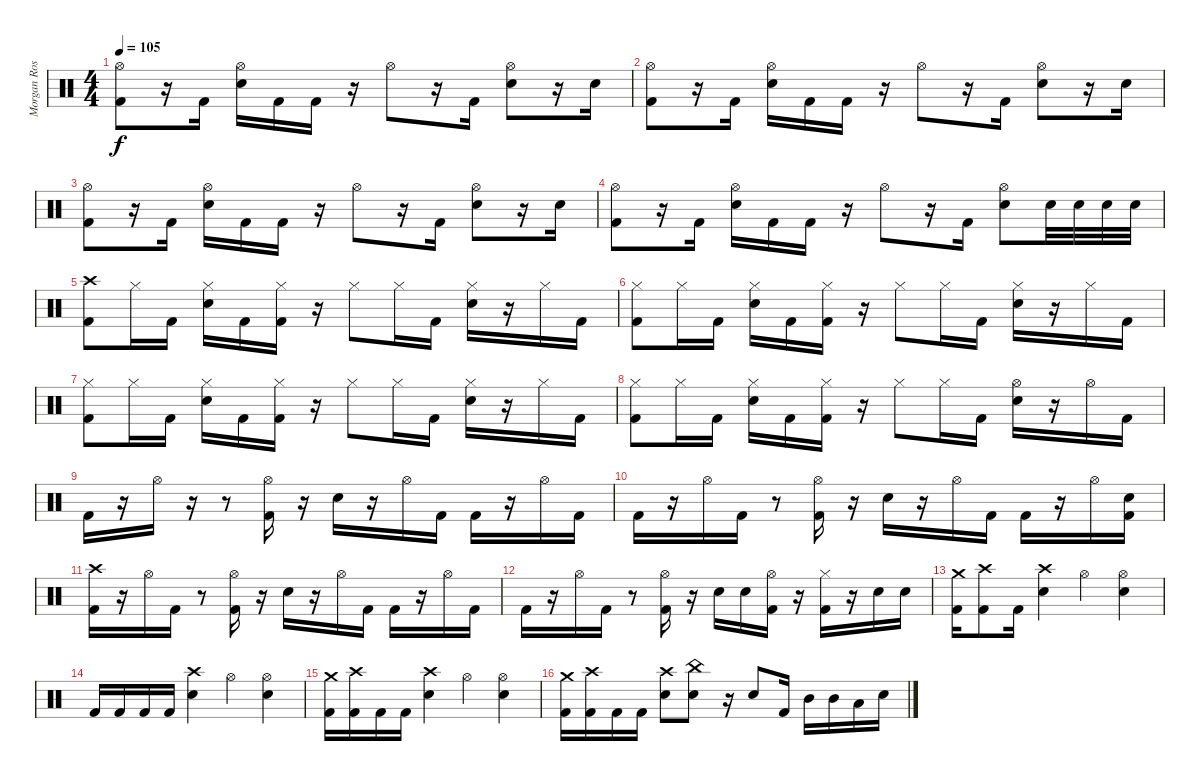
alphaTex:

\track ("Morgan Rose - Drums" "Morgan Ros") {instrument percussion}
\staff {score}
\articulation defaults
\ts (4 4)
\tempo 105
\clef neutral
\ks c
("Hi-Hat (open)" "Kick (hit) 2").8{dy f} r.16 "Kick (hit) 2".16 ("Hi-Hat (open)" "Electric Snare (hit)").16 "Kick (hit) 2".16 "Kick (hit) 2".16 r.16 "Hi-Hat (open)".8 r.16 "Kick (hit) 2".16 ("Hi-Hat (open)" "Electric Snare (hit)").8 r.16 "Electric Snare (hit)".16 |
("Hi-Hat (open)" "Kick (hit) 2").8 r.16 "Kick (hit) 2".16 ("Hi-Hat (open)" "Electric Snare (hit)").16 "Kick (hit) 2".16 "Kick (hit) 2".16 r.16 "Hi-Hat (open)".8 r.16 "Kick (hit) 2".16 ("Hi-Hat (open)" "Electric Snare (hit)").8 r.16 "Electric Snare (hit)".16 |
("Hi-Hat (open)" "Kick (hit) 2").8 r.16 "Kick (hit) 2".16 ("Hi-Hat (open)" "Electric Snare (hit)").16 "Kick (hit) 2".16 "Kick (hit) 2".16 r.16 "Hi-Hat (open)".8 r.16 "Kick (hit) 2".16 ("Hi-Hat (open)" "Electric Snare (hit)").8 r.16 "Electric Snare (hit)".16 |
("Hi-Hat (open)" "Kick (hit) 2").8 r.16 "Kick (hit) 2".16 ("Hi-Hat (open)" "Electric Snare (hit)").16 "Kick (hit) 2".16 "Kick (hit) 2".16 r.16 "Hi-Hat (open)".8 r.16 "Kick (hit) 2".16 ("Hi-Hat (open)" "Electric Snare (hit)").8 "Electric Snare (hit)".32 "Electric Snare (hit)".32 "Electric Snare (hit)".32 "Electric Snare (hit)".32 |
("Crash high (hit)" "Kick (hit) 2").8 "Hi-Hat (closed)".16 "Kick (hit) 2".16 ("Hi-Hat (closed)" "Electric Snare (hit)").16 "Kick (hit) 2".16 ("Hi-Hat (closed)" "Kick (hit) 2").16 r.16 "Hi-Hat (closed)".8 "Hi-Hat (closed)".16 "Kick (hit) 2".16 ("Hi-Hat (closed)" "Electric Snare (hit)").16 r.16 "Hi-Hat (closed)".16 "Kick (hit) 2".16 |
("Hi-Hat (closed)" "Kick (hit) 2").8 "Hi-Hat (closed)".16 "Kick (hit) 2".16 ("Hi-Hat (closed)" "Electric Snare (hit)").16 "Kick (hit) 2".16 ("Hi-Hat (closed)" "Kick (hit) 2").16 r.16 "Hi-Hat (closed)".8 "Hi-Hat (closed)".16 "Kick (hit) 2".16 ("Hi-Hat (closed)" "Electric Snare (hit)").16 r.16 "Hi-Hat (closed)".16 "Kick (hit) 2".16 |
("Hi-Hat (closed)" "Kick (hit) 2").8 "Hi-Hat (closed)".16 "Kick (hit) 2".16 ("Hi-Hat (closed)" "Electric Snare (hit)").16 "Kick (hit) 2".16 ("Hi-Hat (closed)" "Kick (hit) 2").16 r.16 "Hi-Hat (closed)".8 "Hi-Hat (closed)".16 "Kick (hit) 2".16 ("Hi-Hat (closed)" "Electric Snare (hit)").16 r.16 "Hi-Hat (closed)".16 "Kick (hit) 2".16 |
("Hi-Hat (closed)" "Kick (hit) 2").8 "Hi-Hat (closed)".16 "Kick (hit) 2".16 ("Hi-Hat (closed)" "Electric Snare (hit)").16 "Kick (hit) 2".16 ("Hi-Hat (closed)" "Kick (hit) 2").16 r.16 "Hi-Hat (closed)".8 "Hi-Hat (closed)".16 "Kick (hit) 2".16 ("Hi-Hat (open)" "Electric Snare (hit)").16 r.16 "Hi-Hat (open)".16 "Kick (hit) 2".16 |
"Kick (hit) 2".16 r.16 "Hi-Hat (open)".16 r.16 r.8 ("Hi-Hat (open)" "Kick (hit) 2").16 r.16 "Electric Snare (hit)".16 r.16 "Hi-Hat (open)".16 "Kick (hit) 2".16 "Kick (hit) 2".16 r.16 "Hi-Hat (open)".16 "Kick (hit) 2".16 |
"Kick (hit) 2".16 r.16 "Hi-Hat (open)".16 "Kick (hit) 2".16 r.8 ("Hi-Hat (open)" "Kick (hit) 2").16 r.16 "Electric Snare (hit)".16 r.16 "Hi-Hat (open)".16 "Kick (hit) 2".16 "Kick (hit) 2".16 r.16 "Hi-Hat (open)".16 ("Electric Snare (hit)" "Kick (hit) 2").16 |
("Crash high (hit)" "Kick (hit) 2").16 r.16 "Hi-Hat (open)".16 "Kick (hit) 2".16 r.8 ("Hi-Hat (open)" "Kick (hit) 2").16 r.16 "Electric Snare (hit)".16 r.16 "Hi-Hat (open)".16 "Kick (hit) 2".16 "Kick (hit) 2".16 r.16 "Hi-Hat (open)".16 "Kick (hit) 2".16 |
"Kick (hit) 2".16 r.16 "Hi-Hat (open)".16 "Kick (hit) 2".16 r.8 ("Hi-Hat (open)" "Kick (hit) 2").16 r.16 "Electric Snare (hit)".16 "Electric Snare (hit)".16 ("Hi-Hat (open)" "Kick (hit) 2").16 r.16 ("Hi-Hat (closed)" "Kick (hit) 2").16 r.16 "Electric Snare (hit)".16 "Electric Snare (hit)".16 |
("Crash medium (hit)" "Kick (hit) 2").16 ("Crash high (hit)" "Kick (hit) 2").8 "Kick (hit) 2".16 ("Crash high (hit)" "Electric Snare (hit)").4 "Hi-Hat (open)".4 ("Hi-Hat (open)" "Electric Snare (hit)").4 |
"Kick (hit) 2".16 "Kick (hit) 2".16 "Kick (hit) 2".16 "Kick (hit) 2".16 ("Crash high (hit)" "Electric Snare (hit)").4 "Hi-Hat (open)".4 ("Hi-Hat (open)" "Electric Snare (hit)").4 |
("Crash medium (hit)" "Kick (hit) 2").16 ("Crash high (hit)" "Kick (hit) 2").16 "Kick (hit) 2".16 "Kick (hit) 2".16 ("Crash high (hit)" "Electric Snare (hit)").4 "Hi-Hat (open)".4 ("Hi-Hat (open)" "Electric Snare (hit)").4 |
("Crash medium (hit)" "Kick (hit) 2").16 ("Crash high (hit)" "Kick (hit) 2").16 "Kick (hit) 2".16 "Kick (hit) 2".16 ("Crash high (hit)" "Electric Snare (hit)").8 ("China (hit)" "Electric Snare (hit)").8 r.16 "Electric Snare (hit)".8 "Kick (hit) 2".16 "Mid Tom (hit)".16 "Mid Tom (hit)".16 "Low Tom (hit)".16 "Electric Snare (hit)".16
